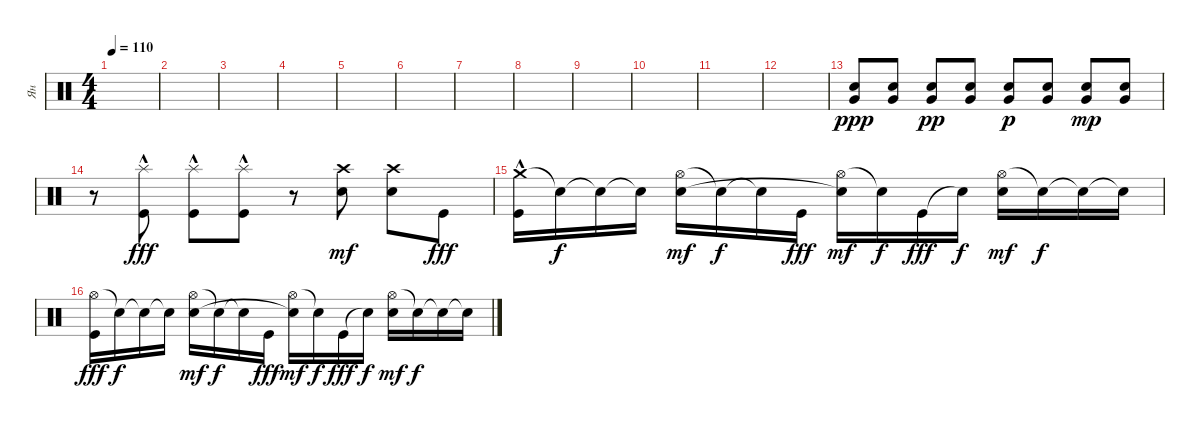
\track ("Ян " "Ян ") {instrument percussion}
\staff
\articulation defaults
\ts (4 4)
\tempo 110
\clef neutral
\ks c
|
|
|
|
|
|
|
|
|
|
|
|
("Very Low Tom (hit)" "Snare (hit) 2").8{dy ppp} ("Very Low Tom (hit)" "Snare (hit) 2").8 ("Very Low Tom (hit)" "Snare (hit) 2").8{dy pp} ("Very Low Tom (hit)" "Snare (hit) 2").8 ("Very Low Tom (hit)" "Snare (hit) 2").8{dy p} ("Very Low Tom (hit)" "Snare (hit) 2").8 ("Very Low Tom (hit)" "Snare (hit) 2").8{dy mp} ("Very Low Tom (hit)" "Snare (hit) 2").8 |
r.8 ("Splash (hit)" "Kick (hit)"{hac}).8{dy fff} ("Splash (hit)" "Kick (hit)"{hac}).8 ("Splash (hit)" "Kick (hit)"{hac}).8 r.8 ("Crash high (hit)" "Snare (hit) 2").8{dy mf} ("Crash high (hit)" "Snare (hit) 2").8 "Kick (hit)".8{dy fff} |
("Crash medium (hit)" "Kick (hit)"{hac}).16 "Snare (hit)"{t}.16{dy f} "Snare (hit)"{t}.16 "Snare (hit)"{t}.16 ("Hi-Hat (open)" "Snare (hit) 2").16{dy mf} "Snare (hit)"{t}.16{dy f} "Snare (hit)"{t}.16 "Kick (hit)".16{dy fff} ("Hi-Hat (open)" "Snare (hit)"{t}).16{dy mf} "Snare (hit)"{t}.16{dy f} "Kick (hit)".16{dy fff} "Snare (hit)"{t}.16{dy f} ("Hi-Hat (open)" "Snare (hit) 2").16{dy mf} "Snare (hit)"{t}.16{dy f} "Snare (hit)"{t}.16 "Snare (hit)"{t}.16 |
("Hi-Hat (open)" "Kick (hit)").16{dy fff} "Snare (hit)"{t}.16{dy f} "Snare (hit)"{t}.16 "Snare (hit)"{t}.16 ("Hi-Hat (open)" "Snare (hit) 2").16{dy mf} "Snare (hit)"{t}.16{dy f} "Snare (hit)"{t}.16 "Kick (hit)".16{dy fff} ("Hi-Hat (open)" "Snare (hit)"{t}).16{dy mf} "Snare (hit)"{t}.16{dy f} "Kick (hit)".16{dy fff} "Snare (hit)"{t}.16{dy f} ("Hi-Hat (open)" "Snare (hit) 2").16{dy mf} "Snare (hit)"{t}.16{dy f} "Snare (hit)"{t}.16 "Snare (hit)"{t}.16
